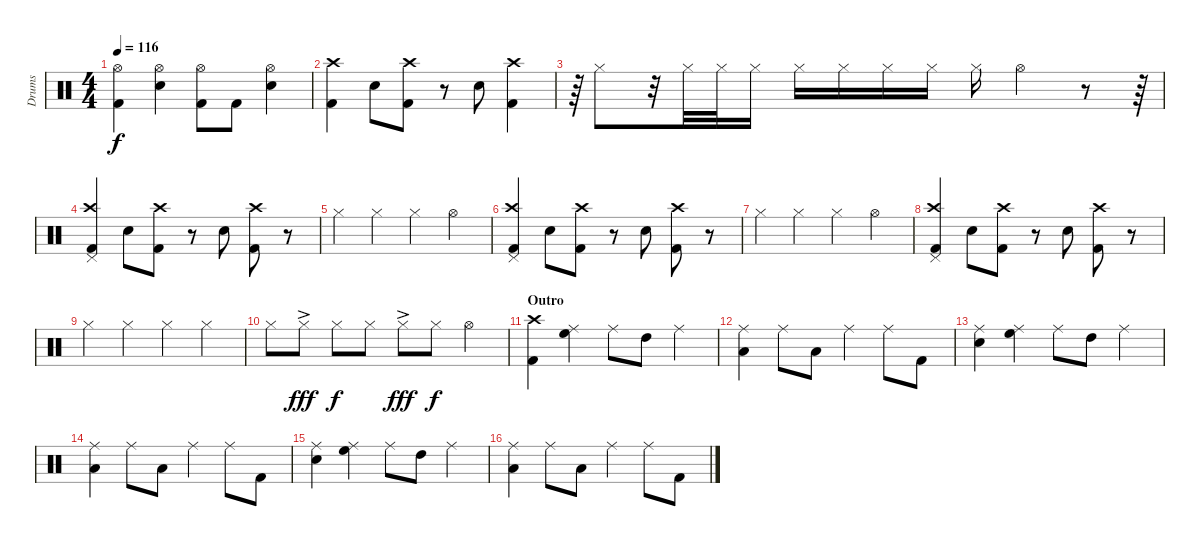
\track ("Drums" "Drums") {instrument percussion}
\staff {score}
\articulation defaults
\ts (4 4)
\tempo 116
\clef neutral
\ks c
("Hi-Hat (open)" "Kick (hit) 2").4{dy f} ("Hi-Hat (open)" "Electric Snare (hit)").4 ("Hi-Hat (open)" "Kick (hit) 2").8 "Kick (hit) 2".8 ("Hi-Hat (open)" "Electric Snare (hit)").4 |
("Crash high (hit)" "Kick (hit) 2").4 "Electric Snare (hit)".8 ("Crash high (hit)" "Kick (hit) 2").8 r.8 "Electric Snare (hit)".8 ("Crash high (hit)" "Kick (hit) 2").4 |
r.64 "Hi-Hat (closed)".8 r.32 "Hi-Hat (closed)".32 "Hi-Hat (closed)".32 "Hi-Hat (closed)".16 "Hi-Hat (closed)".16 "Hi-Hat (closed)".16 "Hi-Hat (closed)".16 "Hi-Hat (closed)".16 "Hi-Hat (closed)".16 "Hi-Hat (open)".4 r.8 r.64 |
("Crash high (hit)" "Kick (hit) 2" "Pedal Hi-Hat (hit)").4 "Electric Snare (hit)".8 ("Crash high (hit)" "Kick (hit) 2").8 r.8 "Electric Snare (hit)".8 ("Crash high (hit)" "Kick (hit) 2").8 r.8 |
"Hi-Hat (closed)".4 "Hi-Hat (closed)".4 "Hi-Hat (closed)".4 "Hi-Hat (open)".4 |
("Crash high (hit)" "Kick (hit) 2" "Pedal Hi-Hat (hit)").4 "Electric Snare (hit)".8 ("Crash high (hit)" "Kick (hit) 2").8 r.8 "Electric Snare (hit)".8 ("Crash high (hit)" "Kick (hit) 2").8 r.8 |
"Hi-Hat (closed)".4 "Hi-Hat (closed)".4 "Hi-Hat (closed)".4 "Hi-Hat (open)".4 |
("Crash high (hit)" "Kick (hit) 2" "Pedal Hi-Hat (hit)").4 "Electric Snare (hit)".8 ("Crash high (hit)" "Kick (hit) 2").8 r.8 "Electric Snare (hit)".8 ("Crash high (hit)" "Kick (hit) 2").8 r.8 |
"Hi-Hat (closed)".4 "Hi-Hat (closed)".4 "Hi-Hat (closed)".4 "Hi-Hat (closed)".4 |
"Hi-Hat (closed)".8 "Hi-Hat (closed)"{ac}.8{dy fff} "Hi-Hat (closed)".8{dy f} "Hi-Hat (closed)".8 "Hi-Hat (closed)"{ac}.8{dy fff} "Hi-Hat (closed)".8{dy f} "Hi-Hat (open)".4 |
\section ("" "Outro")
("Crash high (hit)" "Kick (hit) 2").4 ("Ride (middle)" "High Floor Tom (hit)").4 "Ride (middle)".8 "High Tom (hit)".8 "Ride (middle)".4 |
("Ride (middle)" "Low Tom (hit)").4 "Ride (middle)".8 "Low Floor Tom (hit)".8 "Ride (middle)".4 "Ride (middle)".8 "Kick (hit) 2".8 |
("Ride (middle)" "Electric Snare (hit)").4 ("Ride (middle)" "High Floor Tom (hit)").4 "Ride (middle)".8 "High Tom (hit)".8 "Ride (middle)".4 |
("Ride (middle)" "Low Tom (hit)").4 "Ride (middle)".8 "Low Floor Tom (hit)".8 "Ride (middle)".4 "Ride (middle)".8 "Kick (hit) 2".8 |
("Ride (middle)" "Electric Snare (hit)").4 ("Ride (middle)" "High Floor Tom (hit)").4 "Ride (middle)".8 "High Tom (hit)".8 "Ride (middle)".4 |
("Ride (middle)" "Low Tom (hit)").4 "Ride (middle)".8 "Low Floor Tom (hit)".8 "Ride (middle)".4 "Ride (middle)".8 "Kick (hit) 2".8
